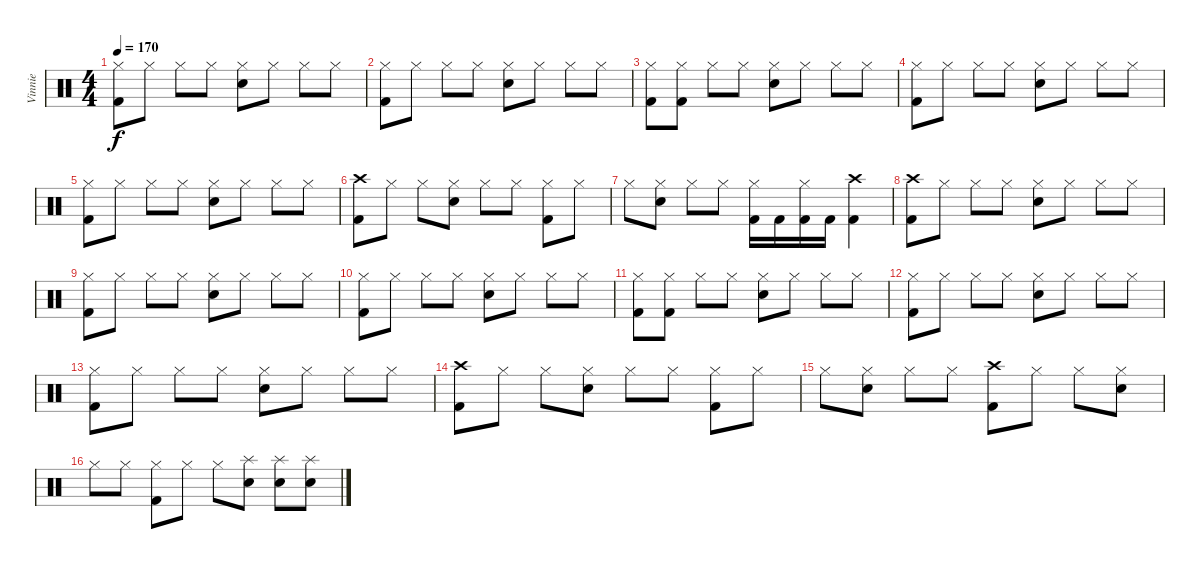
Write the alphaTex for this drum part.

\track ("Vinnie" "Vinnie") {instrument percussion}
\staff {score}
\articulation defaults
\ts (4 4)
\tempo 170
\clef neutral
\ks c
("Hi-Hat (closed)" "Kick (hit) 2").8{dy f} "Hi-Hat (closed)".8 "Hi-Hat (closed)".8 "Hi-Hat (closed)".8 ("Hi-Hat (closed)" "Electric Snare (hit)").8 "Hi-Hat (closed)".8 "Hi-Hat (closed)".8 "Hi-Hat (closed)".8 |
("Hi-Hat (closed)" "Kick (hit) 2").8 "Hi-Hat (closed)".8 "Hi-Hat (closed)".8 "Hi-Hat (closed)".8 ("Hi-Hat (closed)" "Electric Snare (hit)").8 "Hi-Hat (closed)".8 "Hi-Hat (closed)".8 "Hi-Hat (closed)".8 |
("Hi-Hat (closed)" "Kick (hit) 2").8 ("Hi-Hat (closed)" "Kick (hit) 2").8 "Hi-Hat (closed)".8 "Hi-Hat (closed)".8 ("Hi-Hat (closed)" "Electric Snare (hit)").8 "Hi-Hat (closed)".8 "Hi-Hat (closed)".8 "Hi-Hat (closed)".8 |
("Hi-Hat (closed)" "Kick (hit) 2").8 "Hi-Hat (closed)".8 "Hi-Hat (closed)".8 "Hi-Hat (closed)".8 ("Hi-Hat (closed)" "Electric Snare (hit)").8 "Hi-Hat (closed)".8 "Hi-Hat (closed)".8 "Hi-Hat (closed)".8 |
("Hi-Hat (closed)" "Kick (hit) 2").8 "Hi-Hat (closed)".8 "Hi-Hat (closed)".8 "Hi-Hat (closed)".8 ("Hi-Hat (closed)" "Electric Snare (hit)").8 "Hi-Hat (closed)".8 "Hi-Hat (closed)".8 "Hi-Hat (closed)".8 |
("Crash high (hit)" "Kick (hit) 2").8 "Hi-Hat (closed)".8 "Hi-Hat (closed)".8 ("Hi-Hat (closed)" "Electric Snare (hit)").8 "Hi-Hat (closed)".8 "Hi-Hat (closed)".8 ("Hi-Hat (closed)" "Kick (hit) 2").8 "Hi-Hat (closed)".8 |
"Hi-Hat (closed)".8 ("Hi-Hat (closed)" "Electric Snare (hit)").8 "Hi-Hat (closed)".8 "Hi-Hat (closed)".8 ("Hi-Hat (closed)" "Kick (hit) 2").16 "Kick (hit) 2".16 ("Hi-Hat (closed)" "Kick (hit) 2").16 "Kick (hit) 2".16 ("Crash high (hit)" "Kick (hit) 2").4 |
("Crash high (hit)" "Kick (hit) 2").8 "Hi-Hat (closed)".8 "Hi-Hat (closed)".8 "Hi-Hat (closed)".8 ("Hi-Hat (closed)" "Electric Snare (hit)").8 "Hi-Hat (closed)".8 "Hi-Hat (closed)".8 "Hi-Hat (closed)".8 |
("Hi-Hat (closed)" "Kick (hit) 2").8 "Hi-Hat (closed)".8 "Hi-Hat (closed)".8 "Hi-Hat (closed)".8 ("Hi-Hat (closed)" "Electric Snare (hit)").8 "Hi-Hat (closed)".8 "Hi-Hat (closed)".8 "Hi-Hat (closed)".8 |
("Hi-Hat (closed)" "Kick (hit) 2").8 "Hi-Hat (closed)".8 "Hi-Hat (closed)".8 "Hi-Hat (closed)".8 ("Hi-Hat (closed)" "Electric Snare (hit)").8 "Hi-Hat (closed)".8 "Hi-Hat (closed)".8 "Hi-Hat (closed)".8 |
("Hi-Hat (closed)" "Kick (hit) 2").8 ("Hi-Hat (closed)" "Kick (hit) 2").8 "Hi-Hat (closed)".8 "Hi-Hat (closed)".8 ("Hi-Hat (closed)" "Electric Snare (hit)").8 "Hi-Hat (closed)".8 "Hi-Hat (closed)".8 "Hi-Hat (closed)".8 |
("Hi-Hat (closed)" "Kick (hit) 2").8 "Hi-Hat (closed)".8 "Hi-Hat (closed)".8 "Hi-Hat (closed)".8 ("Hi-Hat (closed)" "Electric Snare (hit)").8 "Hi-Hat (closed)".8 "Hi-Hat (closed)".8 "Hi-Hat (closed)".8 |
("Hi-Hat (closed)" "Kick (hit) 2").8 "Hi-Hat (closed)".8 "Hi-Hat (closed)".8 "Hi-Hat (closed)".8 ("Hi-Hat (closed)" "Electric Snare (hit)").8 "Hi-Hat (closed)".8 "Hi-Hat (closed)".8 "Hi-Hat (closed)".8 |
("Crash high (hit)" "Kick (hit) 2").8 "Hi-Hat (closed)".8 "Hi-Hat (closed)".8 ("Hi-Hat (closed)" "Electric Snare (hit)").8 "Hi-Hat (closed)".8 "Hi-Hat (closed)".8 ("Hi-Hat (closed)" "Kick (hit) 2").8 "Hi-Hat (closed)".8 |
"Hi-Hat (closed)".8 ("Hi-Hat (closed)" "Electric Snare (hit)").8 "Hi-Hat (closed)".8 "Hi-Hat (closed)".8 ("Crash high (hit)" "Kick (hit) 2").8 "Hi-Hat (closed)".8 "Hi-Hat (closed)".8 ("Hi-Hat (closed)" "Electric Snare (hit)").8 |
"Hi-Hat (closed)".8 "Hi-Hat (closed)".8 ("Hi-Hat (closed)" "Kick (hit) 2").8 "Hi-Hat (closed)".8 "Hi-Hat (closed)".8 ("Splash (hit)" "Electric Snare (hit)").8 ("Splash (hit)" "Electric Snare (hit)").8 ("Splash (hit)" "Electric Snare (hit)").8
